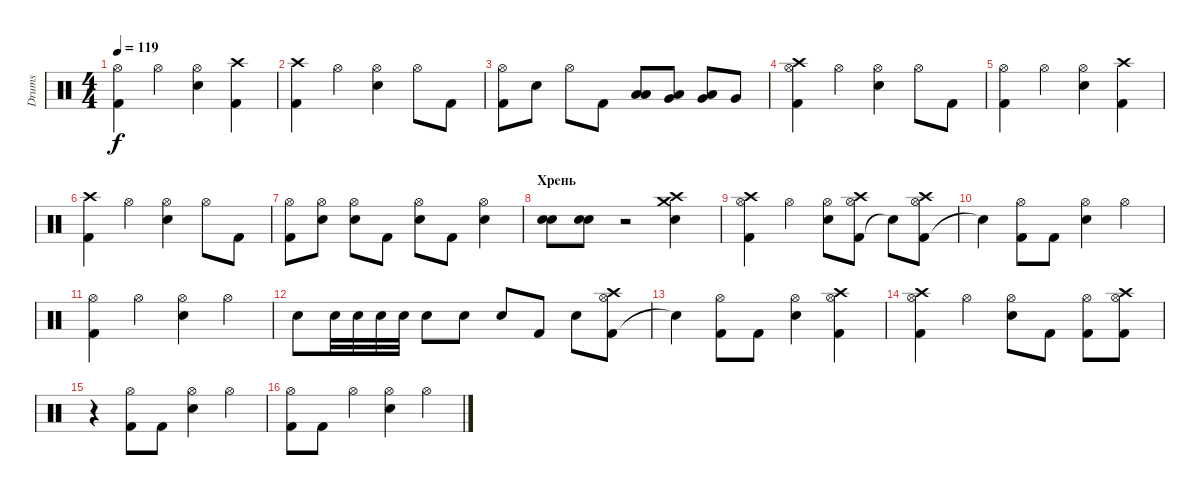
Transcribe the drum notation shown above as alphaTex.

\track ("Drums" "Drums") {instrument percussion}
\staff {score}
\articulation defaults
\ts (4 4)
\tempo 119
\clef neutral
\ks c
("Kick (hit) 2" "Hi-Hat (open)").4{dy f} "Hi-Hat (open)".4 ("Electric Snare (hit)" "Hi-Hat (open)").4 ("Kick (hit) 2" "Crash high (hit)").4 |
("Kick (hit) 2" "Crash high (hit)").4 "Hi-Hat (open)".4 ("Electric Snare (hit)" "Hi-Hat (open)").4 "Hi-Hat (open)".8 "Kick (hit) 2".8 |
("Kick (hit) 2" "Hi-Hat (open)").8 "Electric Snare (hit)".8 "Hi-Hat (open)".8 "Kick (hit) 2".8 ("Low Floor Tom (hit)" "Low Floor Tom (hit)").8 ("Very Low Tom (hit)" "Low Floor Tom (hit)").8 ("Low Tom (hit)" "Very Low Tom (hit)").8 "Very Low Tom (hit)".8 |
("Kick (hit) 2" "Hi-Hat (open)" "Crash high (hit)").4 "Hi-Hat (open)".4 ("Electric Snare (hit)" "Hi-Hat (open)").4 "Hi-Hat (open)".8 "Kick (hit) 2".8 |
("Kick (hit) 2" "Hi-Hat (open)").4 "Hi-Hat (open)".4 ("Electric Snare (hit)" "Hi-Hat (open)").4 ("Kick (hit) 2" "Crash high (hit)").4 |
("Kick (hit) 2" "Crash high (hit)").4 "Hi-Hat (open)".4 ("Electric Snare (hit)" "Hi-Hat (open)").4 "Hi-Hat (open)".8 "Kick (hit) 2".8 |
("Kick (hit) 2" "Hi-Hat (open)").8 ("Electric Snare (hit)" "Hi-Hat (open)").8 ("Electric Snare (hit)" "Hi-Hat (open)").8 "Kick (hit) 2".8 ("Electric Snare (hit)" "Hi-Hat (open)").8 "Kick (hit) 2".8 ("Electric Snare (hit)" "Hi-Hat (open)").4 |
\section ("" "Хрень")
("Electric Snare (hit)" "Electric Snare (hit)").8 ("Electric Snare (hit)" "Electric Snare (hit)").8 r.2 ("Electric Snare (hit)" "Crash medium (hit)" "Crash high (hit)").4 |
("Kick (hit) 2" "Hi-Hat (open)" "Crash high (hit)").4 "Hi-Hat (open)".4 ("Electric Snare (hit)" "Hi-Hat (open)").8 ("Kick (hit) 2" "Hi-Hat (open)" "Crash high (hit)").8 "Snare (hit)"{t}.8 ("Kick (hit) 2" "Hi-Hat (open)" "Crash high (hit)").8 |
"Snare (hit)"{t}.4 ("Kick (hit) 2" "Hi-Hat (open)").8 "Kick (hit) 2".8 ("Electric Snare (hit)" "Hi-Hat (open)").4 "Hi-Hat (open)".4 |
("Kick (hit) 2" "Hi-Hat (open)").4 "Hi-Hat (open)".4 ("Electric Snare (hit)" "Hi-Hat (open)").4 "Hi-Hat (open)".4 |
"Electric Snare (hit)".8 "Electric Snare (hit)".32 "Electric Snare (hit)".32 "Electric Snare (hit)".32 "Electric Snare (hit)".32 "Electric Snare (hit)".8 "Electric Snare (hit)".8 "Electric Snare (hit)".8 "Kick (hit) 2".8 "Electric Snare (hit)".8 ("Kick (hit) 2" "Hi-Hat (open)" "Crash high (hit)").8 |
"Snare (hit)"{t}.4 ("Kick (hit) 2" "Hi-Hat (open)").8 "Kick (hit) 2".8 ("Electric Snare (hit)" "Hi-Hat (open)").4 ("Kick (hit) 2" "Hi-Hat (open)" "Crash high (hit)").4 |
("Kick (hit) 2" "Hi-Hat (open)" "Crash high (hit)").4 "Hi-Hat (open)".4 ("Electric Snare (hit)" "Hi-Hat (open)").8 "Kick (hit) 2".8 ("Kick (hit) 2" "Hi-Hat (open)").8 ("Kick (hit) 2" "Hi-Hat (open)" "Crash high (hit)").8 |
r.4 ("Kick (hit) 2" "Hi-Hat (open)").8 "Kick (hit) 2".8 ("Electric Snare (hit)" "Hi-Hat (open)").4 "Hi-Hat (open)".4 |
("Kick (hit) 2" "Hi-Hat (open)").8 "Kick (hit) 2".8 "Hi-Hat (open)".4 ("Electric Snare (hit)" "Hi-Hat (open)").4 "Hi-Hat (open)".4
